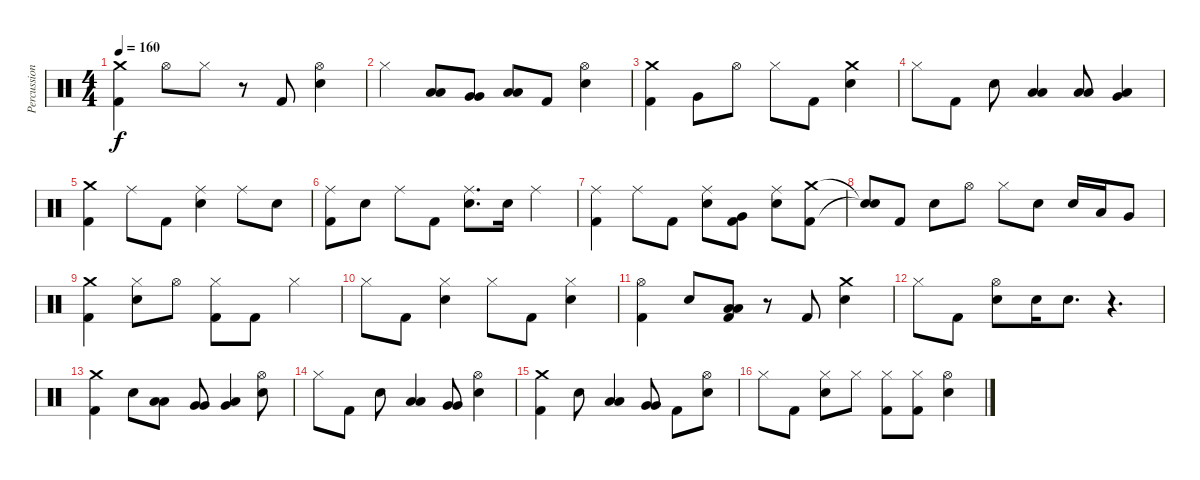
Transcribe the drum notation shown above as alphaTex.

\track ("Percussion" "Percussion") {instrument percussion}
\staff {score}
\articulation defaults
\ts (4 4)
\tempo 160
\clef neutral
\ks c
("Crash medium (hit)" "Kick (hit) 2").4{dy f} "Hi-Hat (open)".8 "Hi-Hat (closed)".8 r.8 "Kick (hit) 2".8 ("Hi-Hat (open)" "Electric Snare (hit)").4 |
"Hi-Hat (closed)".4 ("Low Tom (hit)" "Low Tom (hit)").8 ("Very Low Tom (hit)" "Very Low Tom (hit)").8 ("Low Floor Tom (hit)" "Low Floor Tom (hit)").8 "Kick (hit) 2".8 ("Hi-Hat (open)" "Electric Snare (hit)").4 |
("Crash medium (hit)" "Kick (hit) 2").4 "Very Low Tom (hit)".8 "Hi-Hat (open)".8 "Hi-Hat (closed)".8 "Kick (hit) 2".8 ("Crash medium (hit)" "Electric Snare (hit)").4 |
"Hi-Hat (closed)".8 "Kick (hit) 2".8 "Electric Snare (hit)".8 ("Low Tom (hit)" "Low Tom (hit)").4 ("Low Tom (hit)" "Low Tom (hit)").8 ("Very Low Tom (hit)" "Low Floor Tom (hit)").4 |
("Crash medium (hit)" "Kick (hit) 2").4 "Ride (middle)".8 "Kick (hit) 2".8 ("Ride (middle)" "Electric Snare (hit)").4 "Ride (middle)".8 "Electric Snare (hit)".8 |
("Ride (middle)" "Kick (hit) 2").8 "Electric Snare (hit)".8 "Ride (middle)".8 "Kick (hit) 2".8 ("Ride (middle)" "Electric Snare (hit)").8{d} "Electric Snare (hit)".16 "Ride (middle)".4 |
("Ride (middle)" "Kick (hit) 2").4 "Ride (middle)".8 "Kick (hit) 2".8 ("Ride (middle)" "Electric Snare (hit)").8 ("Very Low Tom (hit)" "Kick (hit) 2").8 ("Ride (middle)" "Electric Snare (hit)").8 ("Crash medium (hit)" "Kick (hit) 2").8 |
("Snare (hit)"{t} "Snare (hit)"{t}).8 "Kick (hit) 2".8 "Electric Snare (hit)".8 "Hi-Hat (open)".8 "Hi-Hat (closed)".8 "Electric Snare (hit)".8 "Electric Snare (hit)".16 "Low Tom (hit)".16 "Very Low Tom (hit)".8 |
("Crash medium (hit)" "Kick (hit) 2").4 ("Hi-Hat (closed)" "Electric Snare (hit)").8 "Hi-Hat (open)".8 ("Hi-Hat (closed)" "Kick (hit) 2").8 "Kick (hit) 2".8 "Hi-Hat (closed)".4 |
"Hi-Hat (closed)".8 "Kick (hit) 2".8 ("Hi-Hat (closed)" "Electric Snare (hit)").4 "Hi-Hat (closed)".8 "Kick (hit) 2".8 ("Hi-Hat (closed)" "Electric Snare (hit)").4 |
("Hi-Hat (open)" "Kick (hit) 2").4 "Electric Snare (hit)".8 ("Low Tom (hit)" "Low Tom (hit)" "Kick (hit) 2").8 r.8 "Kick (hit) 2".8 ("Crash medium (hit)" "Electric Snare (hit)").4 |
"Hi-Hat (closed)".8 "Kick (hit) 2".8 ("Hi-Hat (open)" "Electric Snare (hit)").8 "Electric Snare (hit)".16 "Electric Snare (hit)".8{d} r.4{d} |
("Crash medium (hit)" "Kick (hit) 2").4 "Electric Snare (hit)".8 ("Low Tom (hit)" "Low Tom (hit)").8 ("Very Low Tom (hit)" "Very Low Tom (hit)").8 ("Low Floor Tom (hit)" "Very Low Tom (hit)").4 ("Hi-Hat (open)" "Electric Snare (hit)").8 |
"Hi-Hat (closed)".8 "Kick (hit) 2".8 "Electric Snare (hit)".8 ("Low Tom (hit)" "Low Tom (hit)").4 ("Very Low Tom (hit)" "Very Low Tom (hit)").8 ("Hi-Hat (open)" "Electric Snare (hit)").4 |
("Crash medium (hit)" "Kick (hit) 2").4 "Electric Snare (hit)".8 ("Low Tom (hit)" "Low Tom (hit)").4 ("Very Low Tom (hit)" "Very Low Tom (hit)").8 "Kick (hit) 2".8 ("Hi-Hat (open)" "Electric Snare (hit)").8 |
"Hi-Hat (closed)".8 "Kick (hit) 2".8 ("Hi-Hat (closed)" "Electric Snare (hit)").8 "Hi-Hat (closed)".8 ("Hi-Hat (closed)" "Kick (hit) 2").8 ("Hi-Hat (closed)" "Kick (hit) 2").8 ("Hi-Hat (open)" "Electric Snare (hit)").4
